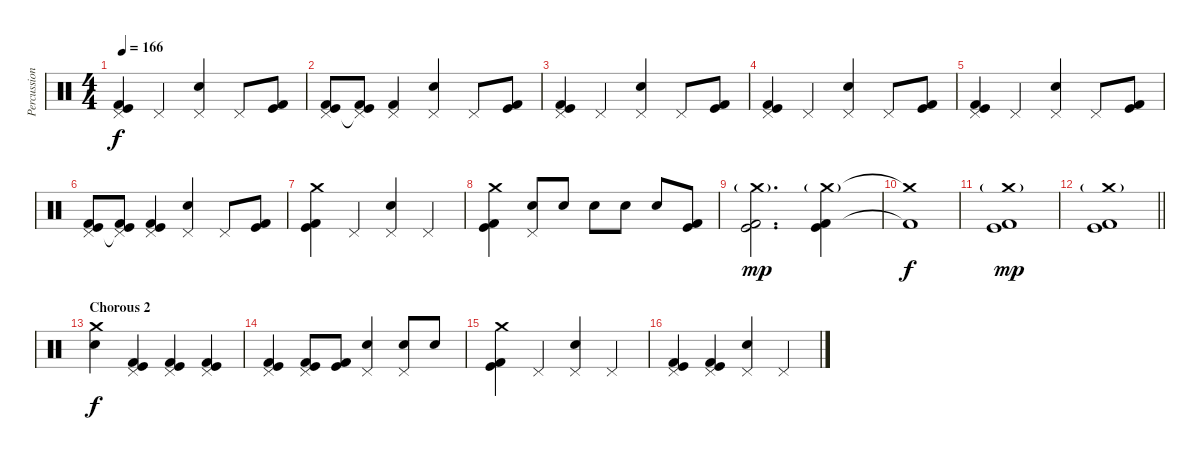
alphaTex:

\track ("Percussion" "Percussion") {instrument percussion}
\staff {score}
\articulation defaults
\ts (4 4)
\tempo 166
\clef neutral
\ks c
("Kick (hit) 2" "Pedal Hi-Hat (hit)" "Kick (hit)").4{dy f} "Pedal Hi-Hat (hit)".4 ("Electric Snare (hit)" "Pedal Hi-Hat (hit)").4 "Pedal Hi-Hat (hit)".8 ("Kick (hit) 2" "Kick (hit)").8 |
("Kick (hit) 2" "Pedal Hi-Hat (hit)" "Kick (hit)").8 ("Kick (hit) 2" "Pedal Hi-Hat (hit)"{t} "Kick (hit)").8 ("Kick (hit) 2" "Pedal Hi-Hat (hit)").4 ("Electric Snare (hit)" "Pedal Hi-Hat (hit)").4 "Pedal Hi-Hat (hit)".8 ("Kick (hit) 2" "Kick (hit)").8 |
("Kick (hit) 2" "Pedal Hi-Hat (hit)" "Kick (hit)").4 "Pedal Hi-Hat (hit)".4 ("Electric Snare (hit)" "Pedal Hi-Hat (hit)").4 "Pedal Hi-Hat (hit)".8 ("Kick (hit) 2" "Kick (hit)").8 |
("Kick (hit) 2" "Pedal Hi-Hat (hit)" "Kick (hit)").4 "Pedal Hi-Hat (hit)".4 ("Electric Snare (hit)" "Pedal Hi-Hat (hit)").4 "Pedal Hi-Hat (hit)".8 ("Kick (hit) 2" "Kick (hit)").8 |
("Kick (hit) 2" "Pedal Hi-Hat (hit)" "Kick (hit)").4 "Pedal Hi-Hat (hit)".4 ("Electric Snare (hit)" "Pedal Hi-Hat (hit)").4 "Pedal Hi-Hat (hit)".8 ("Kick (hit) 2" "Kick (hit)").8 |
("Kick (hit) 2" "Pedal Hi-Hat (hit)" "Kick (hit)").8 ("Kick (hit) 2" "Pedal Hi-Hat (hit)"{t} "Kick (hit)").8 ("Kick (hit) 2" "Pedal Hi-Hat (hit)" "Kick (hit)").4 ("Electric Snare (hit)" "Pedal Hi-Hat (hit)").4 "Pedal Hi-Hat (hit)".8 ("Kick (hit) 2" "Kick (hit)").8 |
("Kick (hit) 2" "Crash medium (hit)" "Kick (hit)").4 "Pedal Hi-Hat (hit)".4 ("Electric Snare (hit)" "Pedal Hi-Hat (hit)").4 "Pedal Hi-Hat (hit)".4 |
("Kick (hit) 2" "Crash medium (hit)" "Kick (hit)").4 ("Electric Snare (hit)" "Pedal Hi-Hat (hit)").8 "Electric Snare (hit)".8 "Electric Snare (hit)".8 "Electric Snare (hit)".8 "Electric Snare (hit)".8 ("Kick (hit) 2" "Kick (hit)").8 |
("Kick (hit) 2" "Crash medium (hit)"{g} "Kick (hit)").2{d dy mp} ("Kick (hit) 2" "Crash medium (hit)"{g} "Kick (hit)").4 |
("Kick (hit) 2"{t} "Crash medium (hit)"{t}).1{dy f} |
("Kick (hit) 2" "Crash medium (hit)"{g} "Kick (hit)").1{dy mp} |
\barLineRight lightlight
("Kick (hit) 2" "Crash medium (hit)"{g} "Kick (hit)").1 |
\section ("" "Chorous 2")
("Electric Snare (hit)" "Crash medium (hit)").4{dy f} ("Kick (hit) 2" "Pedal Hi-Hat (hit)" "Kick (hit)").4 ("Kick (hit) 2" "Pedal Hi-Hat (hit)" "Kick (hit)").4 ("Kick (hit) 2" "Pedal Hi-Hat (hit)" "Kick (hit)").4 |
("Kick (hit) 2" "Pedal Hi-Hat (hit)" "Kick (hit)").4 ("Kick (hit) 2" "Pedal Hi-Hat (hit)" "Kick (hit)").8 ("Kick (hit) 2" "Kick (hit)").8 ("Electric Snare (hit)" "Pedal Hi-Hat (hit)").4 ("Electric Snare (hit)" "Pedal Hi-Hat (hit)").8 "Electric Snare (hit)".8 |
("Kick (hit) 2" "Crash medium (hit)" "Kick (hit)").4 "Pedal Hi-Hat (hit)".4 ("Electric Snare (hit)" "Pedal Hi-Hat (hit)").4 "Pedal Hi-Hat (hit)".4 |
("Kick (hit) 2" "Pedal Hi-Hat (hit)" "Kick (hit)").4 ("Kick (hit) 2" "Pedal Hi-Hat (hit)" "Kick (hit)").4 ("Electric Snare (hit)" "Pedal Hi-Hat (hit)").4 "Pedal Hi-Hat (hit)".4
